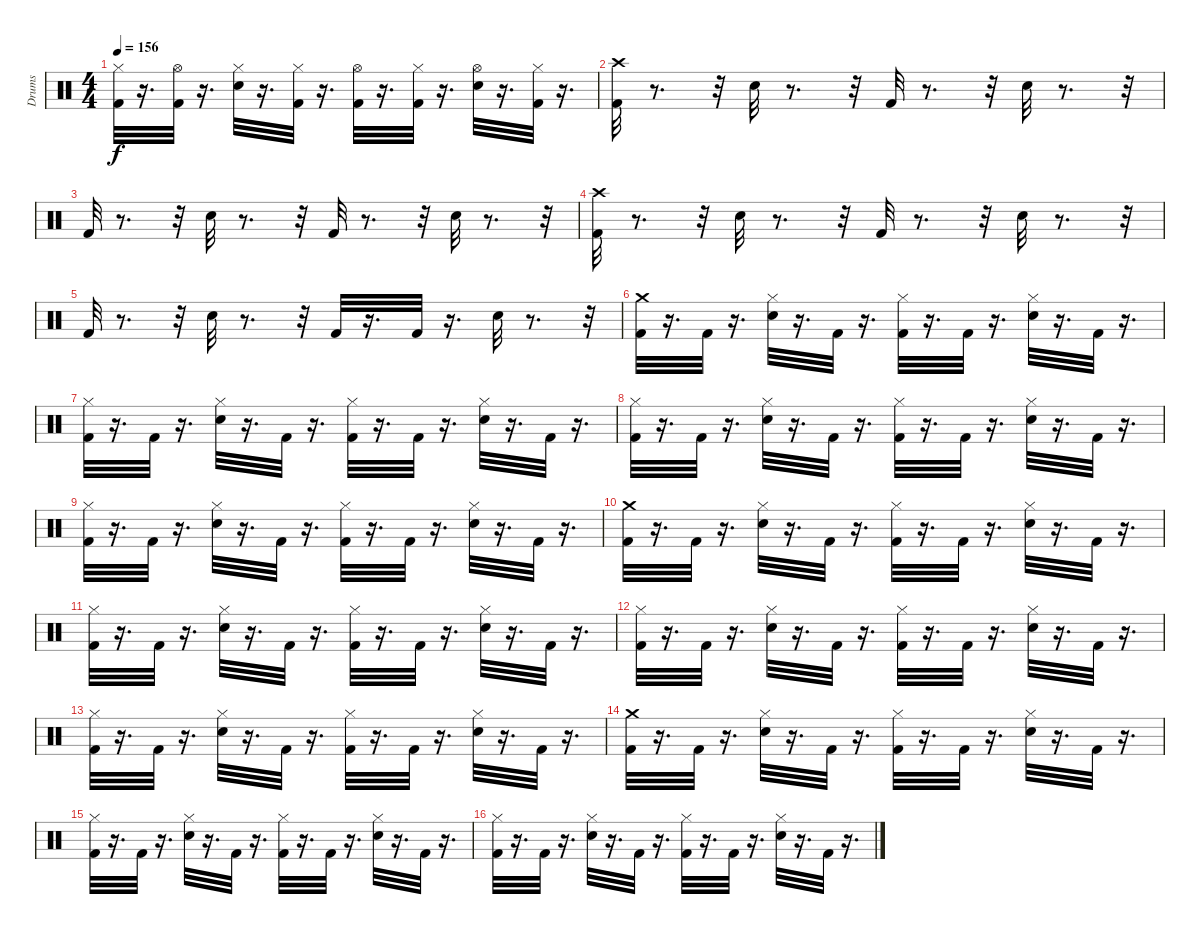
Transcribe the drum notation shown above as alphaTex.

\track ("Drums" "Drums") {instrument percussion}
\staff {score}
\articulation defaults
\ts (4 4)
\tempo 156
\clef neutral
\ks c
("Kick (hit) 2" "Hi-Hat (closed)").32{dy f} r.16{d} ("Kick (hit) 2" "Hi-Hat (open)").32 r.16{d} ("Snare (hit) 2" "Hi-Hat (closed)").32 r.16{d} ("Kick (hit) 2" "Hi-Hat (closed)").32 r.16{d} ("Kick (hit) 2" "Hi-Hat (open)").32 r.16{d} ("Kick (hit) 2" "Hi-Hat (closed)").32 r.16{d} ("Snare (hit) 2" "Hi-Hat (open)").32 r.16{d} ("Kick (hit) 2" "Hi-Hat (closed)").32 r.16{d} |
("Crash high (hit)" "Kick (hit) 2").32 r.8{d} r.32 "Snare (hit) 2".32 r.8{d} r.32 "Kick (hit) 2".32 r.8{d} r.32 "Snare (hit) 2".32 r.8{d} r.32 |
"Kick (hit) 2".32 r.8{d} r.32 "Snare (hit) 2".32 r.8{d} r.32 "Kick (hit) 2".32 r.8{d} r.32 "Snare (hit) 2".32 r.8{d} r.32 |
("Crash high (hit)" "Kick (hit) 2").32 r.8{d} r.32 "Snare (hit) 2".32 r.8{d} r.32 "Kick (hit) 2".32 r.8{d} r.32 "Snare (hit) 2".32 r.8{d} r.32 |
"Kick (hit) 2".32 r.8{d} r.32 "Snare (hit) 2".32 r.8{d} r.32 "Kick (hit) 2".32 r.16{d} "Kick (hit) 2".32 r.16{d} "Snare (hit) 2".32 r.8{d} r.32 |
("Crash medium (hit)" "Kick (hit) 2").32 r.16{d} "Kick (hit) 2".32 r.16{d} ("Snare (hit) 2" "Hi-Hat (closed)").32 r.16{d} "Kick (hit) 2".32 r.16{d} ("Hi-Hat (closed)" "Kick (hit) 2").32 r.16{d} "Kick (hit) 2".32 r.16{d} ("Snare (hit) 2" "Hi-Hat (closed)").32 r.16{d} "Kick (hit) 2".32 r.16{d} |
("Kick (hit) 2" "Hi-Hat (closed)").32 r.16{d} "Kick (hit) 2".32 r.16{d} ("Hi-Hat (closed)" "Snare (hit) 2").32 r.16{d} "Kick (hit) 2".32 r.16{d} ("Hi-Hat (closed)" "Kick (hit) 2").32 r.16{d} "Kick (hit) 2".32 r.16{d} ("Snare (hit) 2" "Hi-Hat (closed)").32 r.16{d} "Kick (hit) 2".32 r.16{d} |
("Kick (hit) 2" "Hi-Hat (closed)").32 r.16{d} "Kick (hit) 2".32 r.16{d} ("Hi-Hat (closed)" "Snare (hit) 2").32 r.16{d} "Kick (hit) 2".32 r.16{d} ("Kick (hit) 2" "Hi-Hat (closed)").32 r.16{d} "Kick (hit) 2".32 r.16{d} ("Hi-Hat (closed)" "Snare (hit) 2").32 r.16{d} "Kick (hit) 2".32 r.16{d} |
("Hi-Hat (closed)" "Kick (hit) 2").32 r.16{d} "Kick (hit) 2".32 r.16{d} ("Snare (hit) 2" "Hi-Hat (closed)").32 r.16{d} "Kick (hit) 2".32 r.16{d} ("Kick (hit) 2" "Hi-Hat (closed)").32 r.16{d} "Kick (hit) 2".32 r.16{d} ("Hi-Hat (closed)" "Snare (hit) 2").32 r.16{d} "Kick (hit) 2".32 r.16{d} |
("Crash medium (hit)" "Kick (hit) 2").32 r.16{d} "Kick (hit) 2".32 r.16{d} ("Snare (hit) 2" "Hi-Hat (closed)").32 r.16{d} "Kick (hit) 2".32 r.16{d} ("Hi-Hat (closed)" "Kick (hit) 2").32 r.16{d} "Kick (hit) 2".32 r.16{d} ("Snare (hit) 2" "Hi-Hat (closed)").32 r.16{d} "Kick (hit) 2".32 r.16{d} |
("Kick (hit) 2" "Hi-Hat (closed)").32 r.16{d} "Kick (hit) 2".32 r.16{d} ("Hi-Hat (closed)" "Snare (hit) 2").32 r.16{d} "Kick (hit) 2".32 r.16{d} ("Hi-Hat (closed)" "Kick (hit) 2").32 r.16{d} "Kick (hit) 2".32 r.16{d} ("Snare (hit) 2" "Hi-Hat (closed)").32 r.16{d} "Kick (hit) 2".32 r.16{d} |
("Kick (hit) 2" "Hi-Hat (closed)").32 r.16{d} "Kick (hit) 2".32 r.16{d} ("Hi-Hat (closed)" "Snare (hit) 2").32 r.16{d} "Kick (hit) 2".32 r.16{d} ("Kick (hit) 2" "Hi-Hat (closed)").32 r.16{d} "Kick (hit) 2".32 r.16{d} ("Hi-Hat (closed)" "Snare (hit) 2").32 r.16{d} "Kick (hit) 2".32 r.16{d} |
("Hi-Hat (closed)" "Kick (hit) 2").32 r.16{d} "Kick (hit) 2".32 r.16{d} ("Snare (hit) 2" "Hi-Hat (closed)").32 r.16{d} "Kick (hit) 2".32 r.16{d} ("Kick (hit) 2" "Hi-Hat (closed)").32 r.16{d} "Kick (hit) 2".32 r.16{d} ("Hi-Hat (closed)" "Snare (hit) 2").32 r.16{d} "Kick (hit) 2".32 r.16{d} |
("Crash medium (hit)" "Kick (hit) 2").32 r.16{d} "Kick (hit) 2".32 r.16{d} ("Snare (hit) 2" "Hi-Hat (closed)").32 r.16{d} "Kick (hit) 2".32 r.16{d} ("Hi-Hat (closed)" "Kick (hit) 2").32 r.16{d} "Kick (hit) 2".32 r.16{d} ("Snare (hit) 2" "Hi-Hat (closed)").32 r.16{d} "Kick (hit) 2".32 r.16{d} |
("Kick (hit) 2" "Hi-Hat (closed)").32 r.16{d} "Kick (hit) 2".32 r.16{d} ("Hi-Hat (closed)" "Snare (hit) 2").32 r.16{d} "Kick (hit) 2".32 r.16{d} ("Hi-Hat (closed)" "Kick (hit) 2").32 r.16{d} "Kick (hit) 2".32 r.16{d} ("Snare (hit) 2" "Hi-Hat (closed)").32 r.16{d} "Kick (hit) 2".32 r.16{d} |
("Kick (hit) 2" "Hi-Hat (closed)").32 r.16{d} "Kick (hit) 2".32 r.16{d} ("Hi-Hat (closed)" "Snare (hit) 2").32 r.16{d} "Kick (hit) 2".32 r.16{d} ("Kick (hit) 2" "Hi-Hat (closed)").32 r.16{d} "Kick (hit) 2".32 r.16{d} ("Hi-Hat (closed)" "Snare (hit) 2").32 r.16{d} "Kick (hit) 2".32 r.16{d}
